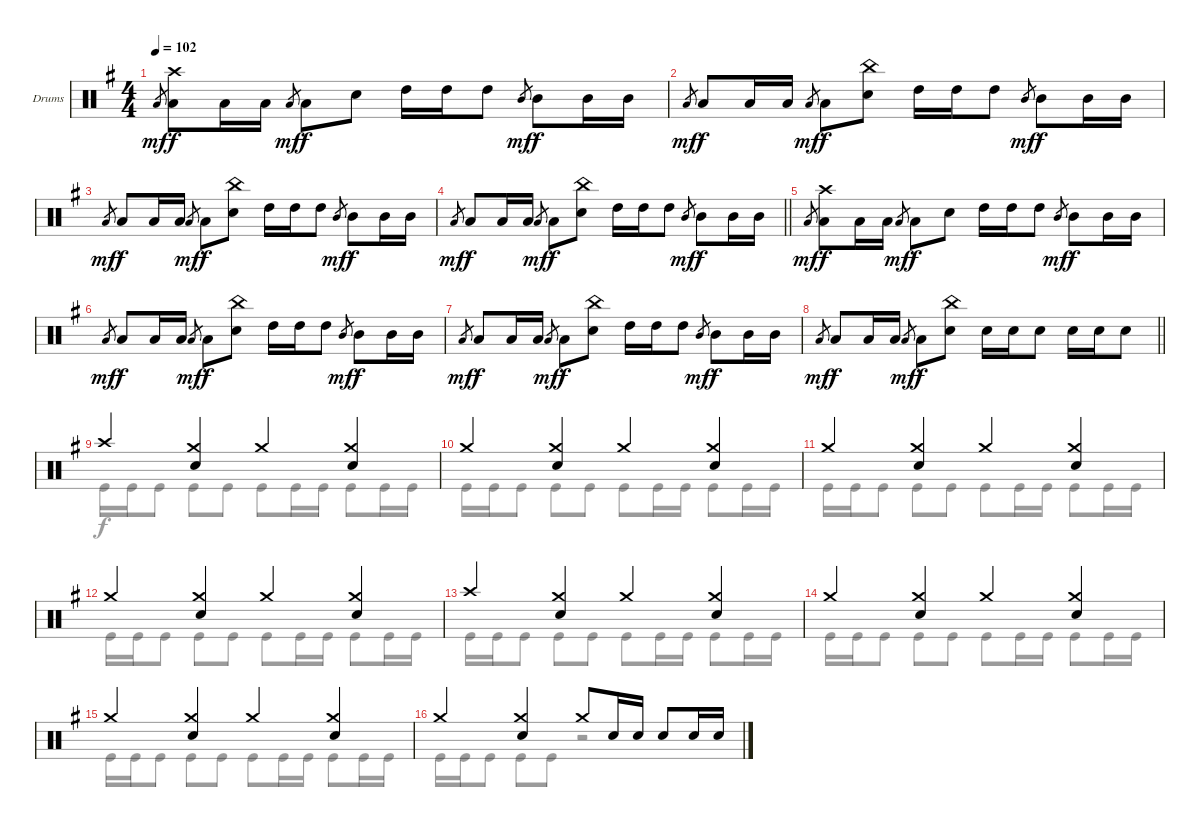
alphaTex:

\bracketExtendMode groupsimilarinstruments
\firstSystemTrackNameOrientation horizontal
\otherSystemsTrackNameOrientation horizontal
\track ("Drumkit" "Drums") {instrument percussion}
\staff {score}
\articulation defaults
\voice
\ts (4 4)
\tempo 102
\clef neutral
\ks g "Low Tom (hit)".8{gr dy mf}
("Crash high (hit)" "Low Tom (hit)").8{dy f} "Low Tom (hit)".16 "Low Tom (hit)".16 "Low Tom (hit)".8{gr dy mf} "Low Tom (hit)".8{dy f} "Snare (hit) 2".8 "High Tom (hit)".16 "High Tom (hit)".16 "High Tom (hit)".8 "Mid Tom (hit)".8{gr dy mf} "Mid Tom (hit)".8{dy f} "Mid Tom (hit)".16 "Mid Tom (hit)".16 |
"Low Tom (hit)".8{gr dy mf} "Low Tom (hit)".8{dy f} "Low Tom (hit)".16 "Low Tom (hit)".16 "Low Tom (hit)".8{gr dy mf} "Low Tom (hit)".8{dy f} ("China (hit)" "Snare (hit) 2").8 "High Tom (hit)".16 "High Tom (hit)".16 "High Tom (hit)".8 "Mid Tom (hit)".8{gr dy mf} "Mid Tom (hit)".8{dy f} "Mid Tom (hit)".16 "Mid Tom (hit)".16 |
"Low Tom (hit)".8{gr dy mf} "Low Tom (hit)".8{dy f} "Low Tom (hit)".16 "Low Tom (hit)".16 "Low Tom (hit)".8{gr dy mf} "Low Tom (hit)".8{dy f} ("China (hit)" "Snare (hit) 2").8 "High Tom (hit)".16 "High Tom (hit)".16 "High Tom (hit)".8 "Mid Tom (hit)".8{gr dy mf} "Mid Tom (hit)".8{dy f} "Mid Tom (hit)".16 "Mid Tom (hit)".16 |
\barLineRight lightlight "Low Tom (hit)".8{gr dy mf} "Low Tom (hit)".8{dy f} "Low Tom (hit)".16 "Low Tom (hit)".16 "Low Tom (hit)".8{gr dy mf} "Low Tom (hit)".8{dy f}
("China (hit)" "Snare (hit) 2").8 "High Tom (hit)".16 "High Tom (hit)".16 "High Tom (hit)".8 "Mid Tom (hit)".8{gr dy mf} "Mid Tom (hit)".8{dy f} "Mid Tom (hit)".16 "Mid Tom (hit)".16 |
"Low Tom (hit)".8{gr dy mf} ("Crash high (hit)" "Low Tom (hit)").8{dy f} "Low Tom (hit)".16 "Low Tom (hit)".16 "Low Tom (hit)".8{gr dy mf} "Low Tom (hit)".8{dy f} "Snare (hit) 2".8 "High Tom (hit)".16 "High Tom (hit)".16 "High Tom (hit)".8 "Mid Tom (hit)".8{gr dy mf} "Mid Tom (hit)".8{dy f} "Mid Tom (hit)".16 "Mid Tom (hit)".16 |
"Low Tom (hit)".8{gr dy mf} "Low Tom (hit)".8{dy f} "Low Tom (hit)".16 "Low Tom (hit)".16 "Low Tom (hit)".8{gr dy mf} "Low Tom (hit)".8{dy f} ("China (hit)" "Snare (hit) 2").8 "High Tom (hit)".16 "High Tom (hit)".16 "High Tom (hit)".8 "Mid Tom (hit)".8{gr dy mf} "Mid Tom (hit)".8{dy f} "Mid Tom (hit)".16 "Mid Tom (hit)".16 |
"Low Tom (hit)".8{gr dy mf} "Low Tom (hit)".8{dy f} "Low Tom (hit)".16 "Low Tom (hit)".16 "Low Tom (hit)".8{gr dy mf} "Low Tom (hit)".8{dy f} ("China (hit)" "Snare (hit) 2").8 "High Tom (hit)".16 "High Tom (hit)".16 "High Tom (hit)".8 "Mid Tom (hit)".8{gr dy mf} "Mid Tom (hit)".8{dy f} "Mid Tom (hit)".16 "Mid Tom (hit)".16 |
\barLineRight lightlight "Low Tom (hit)".8{gr dy mf} "Low Tom (hit)".8{dy f} "Low Tom (hit)".16 "Low Tom (hit)".16 "Low Tom (hit)".8{gr dy mf} "Low Tom (hit)".8{dy f}
("China (hit)" "Snare (hit) 2").8 "Snare (hit) 2".16 "Snare (hit) 2".16 "Snare (hit) 2".8 "Snare (hit) 2".16 "Snare (hit) 2".16 "Snare (hit) 2".8 |
"Crash high (hit)".4 ("Crash medium (hit)" "Snare (hit) 2").4 "Crash medium (hit)".4 ("Crash medium (hit)" "Snare (hit) 2").4 |
"Crash medium (hit)".4 ("Crash medium (hit)" "Snare (hit) 2").4 "Crash medium (hit)".4 ("Crash medium (hit)" "Snare (hit) 2").4 |
"Crash medium (hit)".4 ("Crash medium (hit)" "Snare (hit) 2").4 "Crash medium (hit)".4 ("Crash medium (hit)" "Snare (hit) 2").4 |
"Crash medium (hit)".4 ("Crash medium (hit)" "Snare (hit) 2").4 "Crash medium (hit)".4 ("Crash medium (hit)" "Snare (hit) 2").4 |
"Crash high (hit)".4 ("Crash medium (hit)" "Snare (hit) 2").4 "Crash medium (hit)".4 ("Crash medium (hit)" "Snare (hit) 2").4 |
"Crash medium (hit)".4 ("Crash medium (hit)" "Snare (hit) 2").4 "Crash medium (hit)".4 ("Crash medium (hit)" "Snare (hit) 2").4 |
"Crash medium (hit)".4 ("Crash medium (hit)" "Snare (hit) 2").4 "Crash medium (hit)".4 ("Crash medium (hit)" "Snare (hit) 2").4 |
"Crash medium (hit)".4 ("Crash medium (hit)" "Snare (hit) 2").4 "Crash medium (hit)".8 "Snare (hit) 2".16 "Snare (hit) 2".16 "Snare (hit) 2".8 "Snare (hit) 2".16 "Snare (hit) 2".16
\voice
\clef neutral
\ottava regular
\simile none
\ks g
|
|
|
\barLineRight lightlight
|
|
|
|
\barLineRight lightlight
|
"Kick (hit)".16 "Kick (hit)".16 "Kick (hit)".8 "Kick (hit)".8 "Kick (hit)".8 "Kick (hit)".8 "Kick (hit)".16 "Kick (hit)".16 "Kick (hit)".8 "Kick (hit)".16 "Kick (hit)".16 |
"Kick (hit)".16 "Kick (hit)".16 "Kick (hit)".8 "Kick (hit)".8 "Kick (hit)".8 "Kick (hit)".8 "Kick (hit)".16 "Kick (hit)".16 "Kick (hit)".8 "Kick (hit)".16 "Kick (hit)".16 |
"Kick (hit)".16 "Kick (hit)".16 "Kick (hit)".8 "Kick (hit)".8 "Kick (hit)".8 "Kick (hit)".8 "Kick (hit)".16 "Kick (hit)".16 "Kick (hit)".8 "Kick (hit)".16 "Kick (hit)".16 |
"Kick (hit)".16 "Kick (hit)".16 "Kick (hit)".8 "Kick (hit)".8 "Kick (hit)".8 "Kick (hit)".8 "Kick (hit)".16 "Kick (hit)".16 "Kick (hit)".8 "Kick (hit)".16 "Kick (hit)".16 |
"Kick (hit)".16 "Kick (hit)".16 "Kick (hit)".8 "Kick (hit)".8 "Kick (hit)".8 "Kick (hit)".8 "Kick (hit)".16 "Kick (hit)".16 "Kick (hit)".8 "Kick (hit)".16 "Kick (hit)".16 |
"Kick (hit)".16 "Kick (hit)".16 "Kick (hit)".8 "Kick (hit)".8 "Kick (hit)".8 "Kick (hit)".8 "Kick (hit)".16 "Kick (hit)".16 "Kick (hit)".8 "Kick (hit)".16 "Kick (hit)".16 |
"Kick (hit)".16 "Kick (hit)".16 "Kick (hit)".8 "Kick (hit)".8 "Kick (hit)".8 "Kick (hit)".8 "Kick (hit)".16 "Kick (hit)".16 "Kick (hit)".8 "Kick (hit)".16 "Kick (hit)".16 |
"Kick (hit)".16 "Kick (hit)".16 "Kick (hit)".8 "Kick (hit)".8 "Kick (hit)".8 r.2
